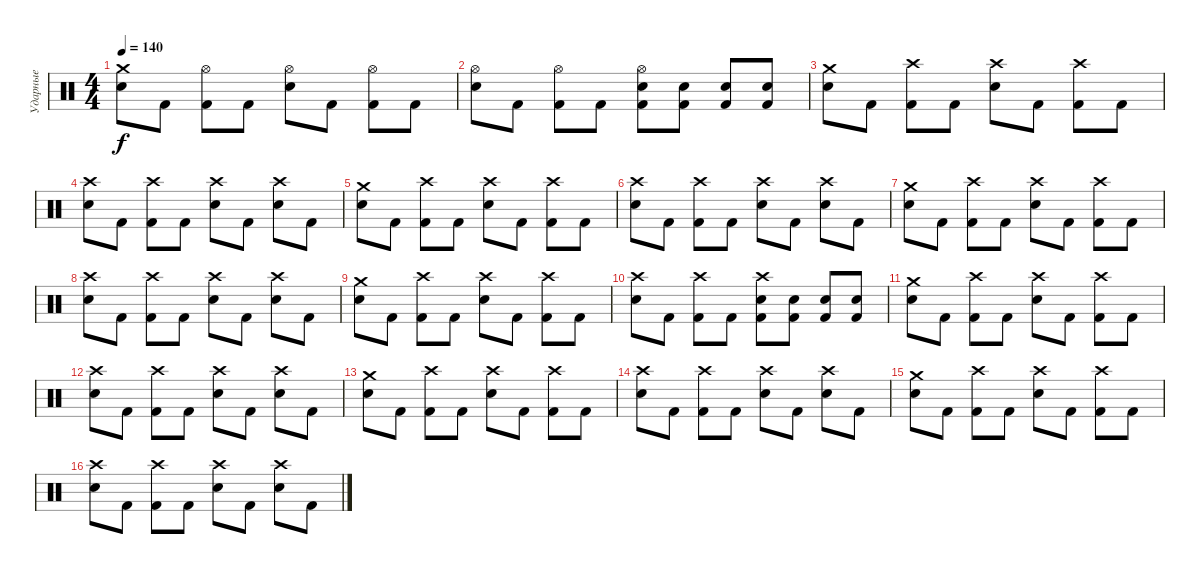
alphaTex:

\track ("Ударные" "Ударные") {instrument percussion}
\staff {score}
\articulation defaults
\ts (4 4)
\tempo 140
\clef neutral
\ks c
("Crash medium (hit)" "Electric Snare (hit)").8{dy f} "Kick (hit) 2".8 ("Hi-Hat (open)" "Kick (hit) 2").8 "Kick (hit) 2".8 ("Hi-Hat (open)" "Electric Snare (hit)").8 "Kick (hit) 2".8 ("Hi-Hat (open)" "Kick (hit) 2").8 "Kick (hit) 2".8 |
("Hi-Hat (open)" "Electric Snare (hit)").8 "Kick (hit) 2".8 ("Hi-Hat (open)" "Kick (hit) 2").8 "Kick (hit) 2".8 ("Hi-Hat (open)" "Electric Snare (hit)" "Kick (hit) 2").8 ("Electric Snare (hit)" "Kick (hit) 2").8 ("Electric Snare (hit)" "Kick (hit) 2").8 ("Electric Snare (hit)" "Kick (hit) 2").8 |
("Crash medium (hit)" "Electric Snare (hit)").8 "Kick (hit) 2".8 ("Crash high (hit)" "Kick (hit) 2").8 "Kick (hit) 2".8 ("Crash high (hit)" "Electric Snare (hit)").8 "Kick (hit) 2".8 ("Crash high (hit)" "Kick (hit) 2").8 "Kick (hit) 2".8 |
("Crash high (hit)" "Electric Snare (hit)").8 "Kick (hit) 2".8 ("Crash high (hit)" "Kick (hit) 2").8 "Kick (hit) 2".8 ("Crash high (hit)" "Electric Snare (hit)").8 "Kick (hit) 2".8 ("Crash high (hit)" "Electric Snare (hit)").8 "Kick (hit) 2".8 |
("Crash medium (hit)" "Electric Snare (hit)").8 "Kick (hit) 2".8 ("Crash high (hit)" "Kick (hit) 2").8 "Kick (hit) 2".8 ("Crash high (hit)" "Electric Snare (hit)").8 "Kick (hit) 2".8 ("Crash high (hit)" "Kick (hit) 2").8 "Kick (hit) 2".8 |
("Crash high (hit)" "Electric Snare (hit)").8 "Kick (hit) 2".8 ("Crash high (hit)" "Kick (hit) 2").8 "Kick (hit) 2".8 ("Crash high (hit)" "Electric Snare (hit)").8 "Kick (hit) 2".8 ("Crash high (hit)" "Electric Snare (hit)").8 "Kick (hit) 2".8 |
("Crash medium (hit)" "Electric Snare (hit)").8 "Kick (hit) 2".8 ("Crash high (hit)" "Kick (hit) 2").8 "Kick (hit) 2".8 ("Crash high (hit)" "Electric Snare (hit)").8 "Kick (hit) 2".8 ("Crash high (hit)" "Kick (hit) 2").8 "Kick (hit) 2".8 |
("Crash high (hit)" "Electric Snare (hit)").8 "Kick (hit) 2".8 ("Crash high (hit)" "Kick (hit) 2").8 "Kick (hit) 2".8 ("Crash high (hit)" "Electric Snare (hit)").8 "Kick (hit) 2".8 ("Crash high (hit)" "Electric Snare (hit)").8 "Kick (hit) 2".8 |
("Crash medium (hit)" "Electric Snare (hit)").8 "Kick (hit) 2".8 ("Crash high (hit)" "Kick (hit) 2").8 "Kick (hit) 2".8 ("Crash high (hit)" "Electric Snare (hit)").8 "Kick (hit) 2".8 ("Crash high (hit)" "Kick (hit) 2").8 "Kick (hit) 2".8 |
("Crash high (hit)" "Electric Snare (hit)").8 "Kick (hit) 2".8 ("Crash high (hit)" "Kick (hit) 2").8 "Kick (hit) 2".8 ("Crash high (hit)" "Electric Snare (hit)" "Kick (hit) 2").8 ("Electric Snare (hit)" "Kick (hit) 2").8 ("Electric Snare (hit)" "Kick (hit) 2").8 ("Electric Snare (hit)" "Kick (hit) 2").8 |
("Crash medium (hit)" "Electric Snare (hit)").8 "Kick (hit) 2".8 ("Crash high (hit)" "Kick (hit) 2").8 "Kick (hit) 2".8 ("Crash high (hit)" "Electric Snare (hit)").8 "Kick (hit) 2".8 ("Crash high (hit)" "Kick (hit) 2").8 "Kick (hit) 2".8 |
("Crash high (hit)" "Electric Snare (hit)").8 "Kick (hit) 2".8 ("Crash high (hit)" "Kick (hit) 2").8 "Kick (hit) 2".8 ("Crash high (hit)" "Electric Snare (hit)").8 "Kick (hit) 2".8 ("Crash high (hit)" "Electric Snare (hit)").8 "Kick (hit) 2".8 |
("Crash medium (hit)" "Electric Snare (hit)").8 "Kick (hit) 2".8 ("Crash high (hit)" "Kick (hit) 2").8 "Kick (hit) 2".8 ("Crash high (hit)" "Electric Snare (hit)").8 "Kick (hit) 2".8 ("Crash high (hit)" "Kick (hit) 2").8 "Kick (hit) 2".8 |
("Crash high (hit)" "Electric Snare (hit)").8 "Kick (hit) 2".8 ("Crash high (hit)" "Kick (hit) 2").8 "Kick (hit) 2".8 ("Crash high (hit)" "Electric Snare (hit)").8 "Kick (hit) 2".8 ("Crash high (hit)" "Electric Snare (hit)").8 "Kick (hit) 2".8 |
("Crash medium (hit)" "Electric Snare (hit)").8 "Kick (hit) 2".8 ("Crash high (hit)" "Kick (hit) 2").8 "Kick (hit) 2".8 ("Crash high (hit)" "Electric Snare (hit)").8 "Kick (hit) 2".8 ("Crash high (hit)" "Kick (hit) 2").8 "Kick (hit) 2".8 |
("Crash high (hit)" "Electric Snare (hit)").8 "Kick (hit) 2".8 ("Crash high (hit)" "Kick (hit) 2").8 "Kick (hit) 2".8 ("Crash high (hit)" "Electric Snare (hit)").8 "Kick (hit) 2".8 ("Crash high (hit)" "Electric Snare (hit)").8 "Kick (hit) 2".8
